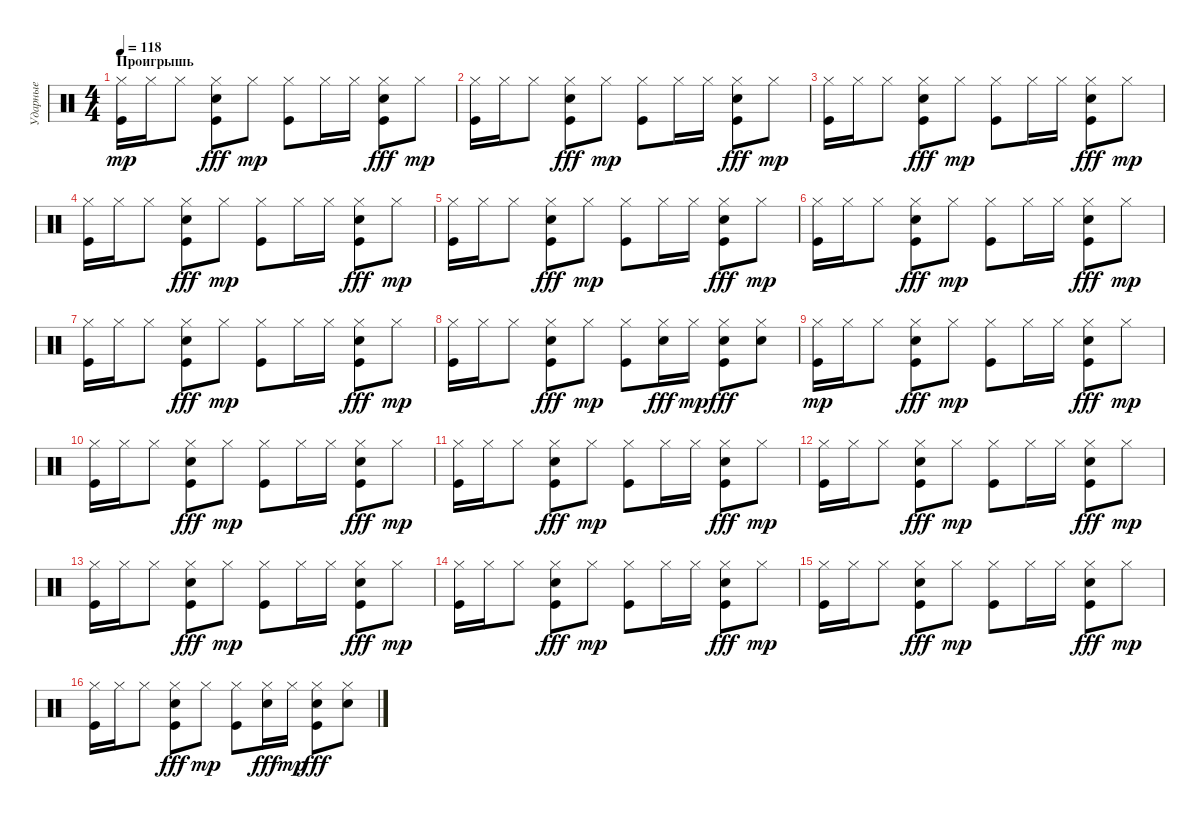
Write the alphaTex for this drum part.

\track ("Ударные" "Ударные") {instrument percussion}
\staff {score}
\articulation defaults
\ts (4 4)
\section ("" "Проигрышь")
\tempo 118
\clef neutral
\ks c
("Kick (hit)" "Hi-Hat (closed)").16{dy mp} "Hi-Hat (closed)".16 "Hi-Hat (closed)".8 ("Kick (hit)" "Hi-Hat (closed)" "Electric Snare (hit)").8{dy fff} "Hi-Hat (closed)".8{dy mp} ("Kick (hit)" "Hi-Hat (closed)").8 "Hi-Hat (closed)".16 "Hi-Hat (closed)".16 ("Hi-Hat (closed)" "Kick (hit)" "Electric Snare (hit)").8{dy fff} "Hi-Hat (closed)".8{dy mp} |
("Kick (hit)" "Hi-Hat (closed)").16 "Hi-Hat (closed)".16 "Hi-Hat (closed)".8 ("Kick (hit)" "Hi-Hat (closed)" "Electric Snare (hit)").8{dy fff} "Hi-Hat (closed)".8{dy mp} ("Kick (hit)" "Hi-Hat (closed)").8 "Hi-Hat (closed)".16 "Hi-Hat (closed)".16 ("Hi-Hat (closed)" "Kick (hit)" "Electric Snare (hit)").8{dy fff} "Hi-Hat (closed)".8{dy mp} |
("Kick (hit)" "Hi-Hat (closed)").16 "Hi-Hat (closed)".16 "Hi-Hat (closed)".8 ("Kick (hit)" "Hi-Hat (closed)" "Electric Snare (hit)").8{dy fff} "Hi-Hat (closed)".8{dy mp} ("Kick (hit)" "Hi-Hat (closed)").8 "Hi-Hat (closed)".16 "Hi-Hat (closed)".16 ("Hi-Hat (closed)" "Kick (hit)" "Electric Snare (hit)").8{dy fff} "Hi-Hat (closed)".8{dy mp} |
("Kick (hit)" "Hi-Hat (closed)").16 "Hi-Hat (closed)".16 "Hi-Hat (closed)".8 ("Kick (hit)" "Hi-Hat (closed)" "Electric Snare (hit)").8{dy fff} "Hi-Hat (closed)".8{dy mp} ("Kick (hit)" "Hi-Hat (closed)").8 "Hi-Hat (closed)".16 "Hi-Hat (closed)".16 ("Hi-Hat (closed)" "Kick (hit)" "Electric Snare (hit)").8{dy fff} "Hi-Hat (closed)".8{dy mp} |
("Kick (hit)" "Hi-Hat (closed)").16 "Hi-Hat (closed)".16 "Hi-Hat (closed)".8 ("Kick (hit)" "Hi-Hat (closed)" "Electric Snare (hit)").8{dy fff} "Hi-Hat (closed)".8{dy mp} ("Kick (hit)" "Hi-Hat (closed)").8 "Hi-Hat (closed)".16 "Hi-Hat (closed)".16 ("Hi-Hat (closed)" "Kick (hit)" "Electric Snare (hit)").8{dy fff} "Hi-Hat (closed)".8{dy mp} |
("Kick (hit)" "Hi-Hat (closed)").16 "Hi-Hat (closed)".16 "Hi-Hat (closed)".8 ("Kick (hit)" "Hi-Hat (closed)" "Electric Snare (hit)").8{dy fff} "Hi-Hat (closed)".8{dy mp} ("Kick (hit)" "Hi-Hat (closed)").8 "Hi-Hat (closed)".16 "Hi-Hat (closed)".16 ("Hi-Hat (closed)" "Kick (hit)" "Electric Snare (hit)").8{dy fff} "Hi-Hat (closed)".8{dy mp} |
("Kick (hit)" "Hi-Hat (closed)").16 "Hi-Hat (closed)".16 "Hi-Hat (closed)".8 ("Kick (hit)" "Hi-Hat (closed)" "Electric Snare (hit)").8{dy fff} "Hi-Hat (closed)".8{dy mp} ("Kick (hit)" "Hi-Hat (closed)").8 "Hi-Hat (closed)".16 "Hi-Hat (closed)".16 ("Hi-Hat (closed)" "Kick (hit)" "Electric Snare (hit)").8{dy fff} "Hi-Hat (closed)".8{dy mp} |
("Kick (hit)" "Hi-Hat (closed)").16 "Hi-Hat (closed)".16 "Hi-Hat (closed)".8 ("Kick (hit)" "Hi-Hat (closed)" "Electric Snare (hit)").8{dy fff} "Hi-Hat (closed)".8{dy mp} ("Kick (hit)" "Hi-Hat (closed)").8 ("Hi-Hat (closed)" "Electric Snare (hit)").16{dy fff} "Hi-Hat (closed)".16{dy mp} ("Hi-Hat (closed)" "Kick (hit)" "Electric Snare (hit)").8{dy fff} ("Hi-Hat (closed)" "Electric Snare (hit)").8 |
("Kick (hit)" "Hi-Hat (closed)").16{dy mp} "Hi-Hat (closed)".16 "Hi-Hat (closed)".8 ("Kick (hit)" "Hi-Hat (closed)" "Electric Snare (hit)").8{dy fff} "Hi-Hat (closed)".8{dy mp} ("Kick (hit)" "Hi-Hat (closed)").8 "Hi-Hat (closed)".16 "Hi-Hat (closed)".16 ("Hi-Hat (closed)" "Kick (hit)" "Electric Snare (hit)").8{dy fff} "Hi-Hat (closed)".8{dy mp} |
("Kick (hit)" "Hi-Hat (closed)").16 "Hi-Hat (closed)".16 "Hi-Hat (closed)".8 ("Kick (hit)" "Hi-Hat (closed)" "Electric Snare (hit)").8{dy fff} "Hi-Hat (closed)".8{dy mp} ("Kick (hit)" "Hi-Hat (closed)").8 "Hi-Hat (closed)".16 "Hi-Hat (closed)".16 ("Hi-Hat (closed)" "Kick (hit)" "Electric Snare (hit)").8{dy fff} "Hi-Hat (closed)".8{dy mp} |
("Kick (hit)" "Hi-Hat (closed)").16 "Hi-Hat (closed)".16 "Hi-Hat (closed)".8 ("Kick (hit)" "Hi-Hat (closed)" "Electric Snare (hit)").8{dy fff} "Hi-Hat (closed)".8{dy mp} ("Kick (hit)" "Hi-Hat (closed)").8 "Hi-Hat (closed)".16 "Hi-Hat (closed)".16 ("Hi-Hat (closed)" "Kick (hit)" "Electric Snare (hit)").8{dy fff} "Hi-Hat (closed)".8{dy mp} |
("Kick (hit)" "Hi-Hat (closed)").16 "Hi-Hat (closed)".16 "Hi-Hat (closed)".8 ("Kick (hit)" "Hi-Hat (closed)" "Electric Snare (hit)").8{dy fff} "Hi-Hat (closed)".8{dy mp} ("Kick (hit)" "Hi-Hat (closed)").8 "Hi-Hat (closed)".16 "Hi-Hat (closed)".16 ("Hi-Hat (closed)" "Kick (hit)" "Electric Snare (hit)").8{dy fff} "Hi-Hat (closed)".8{dy mp} |
("Kick (hit)" "Hi-Hat (closed)").16 "Hi-Hat (closed)".16 "Hi-Hat (closed)".8 ("Kick (hit)" "Hi-Hat (closed)" "Electric Snare (hit)").8{dy fff} "Hi-Hat (closed)".8{dy mp} ("Kick (hit)" "Hi-Hat (closed)").8 "Hi-Hat (closed)".16 "Hi-Hat (closed)".16 ("Hi-Hat (closed)" "Kick (hit)" "Electric Snare (hit)").8{dy fff} "Hi-Hat (closed)".8{dy mp} |
("Kick (hit)" "Hi-Hat (closed)").16 "Hi-Hat (closed)".16 "Hi-Hat (closed)".8 ("Kick (hit)" "Hi-Hat (closed)" "Electric Snare (hit)").8{dy fff} "Hi-Hat (closed)".8{dy mp} ("Kick (hit)" "Hi-Hat (closed)").8 "Hi-Hat (closed)".16 "Hi-Hat (closed)".16 ("Hi-Hat (closed)" "Kick (hit)" "Electric Snare (hit)").8{dy fff} "Hi-Hat (closed)".8{dy mp} |
("Kick (hit)" "Hi-Hat (closed)").16 "Hi-Hat (closed)".16 "Hi-Hat (closed)".8 ("Kick (hit)" "Hi-Hat (closed)" "Electric Snare (hit)").8{dy fff} "Hi-Hat (closed)".8{dy mp} ("Kick (hit)" "Hi-Hat (closed)").8 "Hi-Hat (closed)".16 "Hi-Hat (closed)".16 ("Hi-Hat (closed)" "Kick (hit)" "Electric Snare (hit)").8{dy fff} "Hi-Hat (closed)".8{dy mp} |
("Kick (hit)" "Hi-Hat (closed)").16 "Hi-Hat (closed)".16 "Hi-Hat (closed)".8 ("Kick (hit)" "Hi-Hat (closed)" "Electric Snare (hit)").8{dy fff} "Hi-Hat (closed)".8{dy mp} ("Kick (hit)" "Hi-Hat (closed)").8 ("Hi-Hat (closed)" "Electric Snare (hit)").16{dy fff} "Hi-Hat (closed)".16{dy mp} ("Hi-Hat (closed)" "Kick (hit)" "Electric Snare (hit)").8{dy fff} ("Hi-Hat (closed)" "Electric Snare (hit)").8
